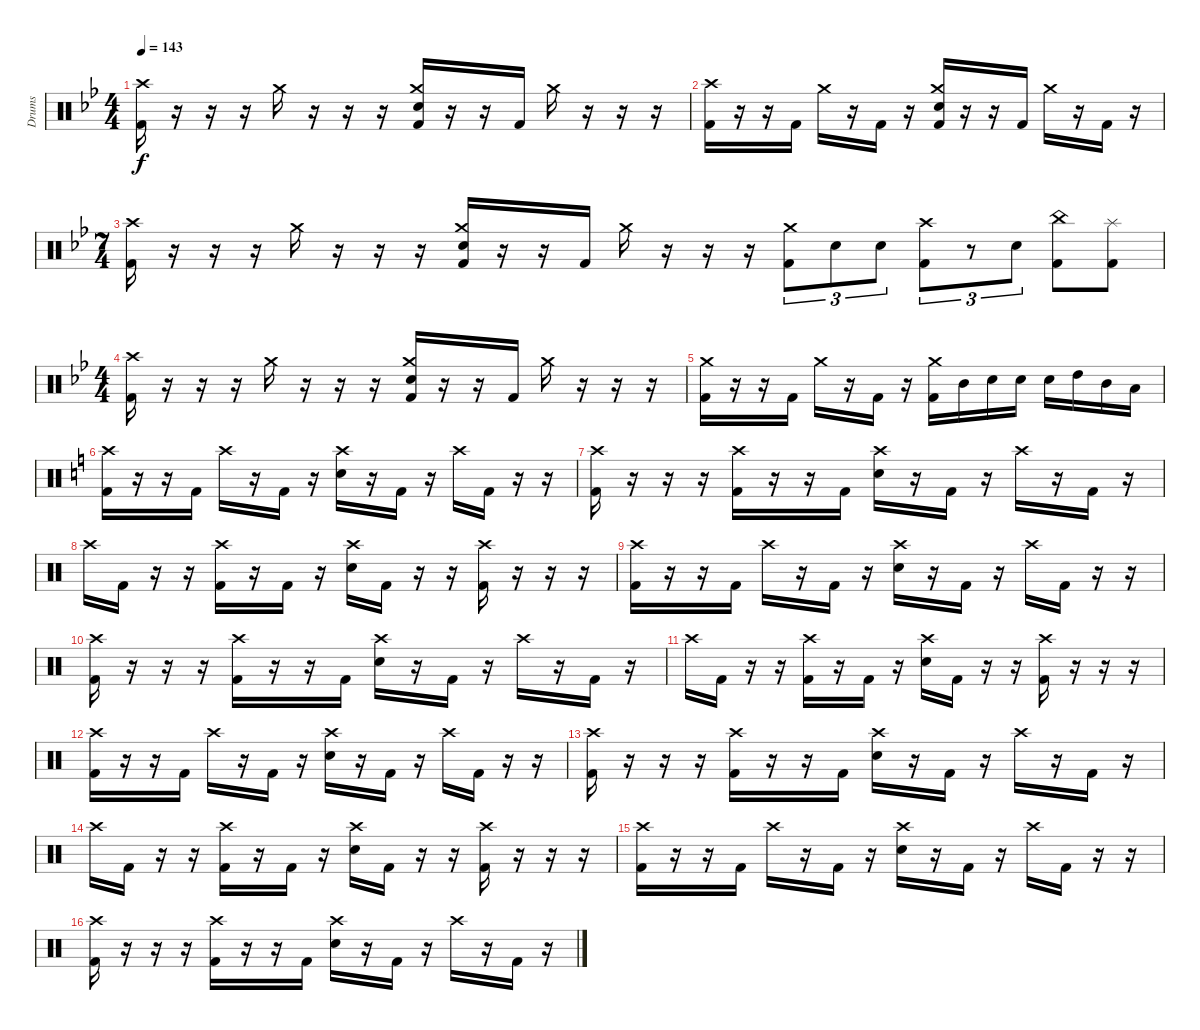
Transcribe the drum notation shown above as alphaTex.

\track ("Drums" "Drums") {instrument percussion}
\staff {score}
\articulation defaults
\ts (4 4)
\tempo 143
\clef neutral
\ks bb
("Crash high (hit)" "Kick (hit) 2").16{dy f} r.16 r.16 r.16 "Crash medium (hit)".16 r.16 r.16 r.16 ("Crash medium (hit)" "Electric Snare (hit)" "Kick (hit) 2").16 r.16 r.16 "Kick (hit) 2".16 "Crash medium (hit)".16 r.16 r.16 r.16 |
("Crash high (hit)" "Kick (hit) 2").16 r.16 r.16 "Kick (hit) 2".16 "Crash medium (hit)".16 r.16 "Kick (hit) 2".16 r.16 ("Crash medium (hit)" "Electric Snare (hit)" "Kick (hit) 2").16 r.16 r.16 "Kick (hit) 2".16 "Crash medium (hit)".16 r.16 "Kick (hit) 2".16 r.16 |
\ts (7 4)
("Crash high (hit)" "Kick (hit) 2").16 r.16 r.16 r.16 "Crash medium (hit)".16 r.16 r.16 r.16 ("Crash medium (hit)" "Electric Snare (hit)" "Kick (hit) 2").16 r.16 r.16 "Kick (hit) 2".16 "Crash medium (hit)".16 r.16 r.16 r.16 ("Crash medium (hit)" "Kick (hit) 2").8{tu (3 2)} "Electric Snare (hit)".8{tu (3 2)} "Electric Snare (hit)".8{tu (3 2)} ("Crash high (hit)" "Kick (hit) 2").8{tu (3 2)} r.8{tu (3 2)} "Electric Snare (hit)".8{tu (3 2)} ("China (hit)" "Kick (hit) 2").8 ("Splash (hit)" "Kick (hit) 2").8 |
\ts (4 4)
("Crash high (hit)" "Kick (hit) 2").16 r.16 r.16 r.16 "Crash medium (hit)".16 r.16 r.16 r.16 ("Crash medium (hit)" "Electric Snare (hit)" "Kick (hit) 2").16 r.16 r.16 "Kick (hit) 2".16 "Crash medium (hit)".16 r.16 r.16 r.16 |
("Crash medium (hit)" "Kick (hit) 2").16 r.16 r.16 "Kick (hit) 2".16 "Crash medium (hit)".16 r.16 "Kick (hit) 2".16 r.16 ("Crash medium (hit)" "Kick (hit) 2").16 "Mid Tom (hit)".16 "Electric Snare (hit)".16 "Electric Snare (hit)".16 "Electric Snare (hit)".16 "High Tom (hit)".16 "Mid Tom (hit)".16 "Low Tom (hit)".16 |
\ks c
("Crash high (hit)" "Kick (hit) 2").16 r.16 r.16 "Kick (hit) 2".16 "Crash high (hit)".16 r.16 "Kick (hit) 2".16 r.16 ("Crash high (hit)" "Electric Snare (hit)").16 r.16 "Kick (hit) 2".16 r.16 "Crash high (hit)".16 "Kick (hit) 2".16 r.16 r.16 |
("Crash high (hit)" "Kick (hit) 2").16 r.16 r.16 r.16 ("Crash high (hit)" "Kick (hit) 2").16 r.16 r.16 "Kick (hit) 2".16 ("Crash high (hit)" "Electric Snare (hit)").16 r.16 "Kick (hit) 2".16 r.16 "Crash high (hit)".16 r.16 "Kick (hit) 2".16 r.16 |
"Crash high (hit)".16 "Kick (hit) 2".16 r.16 r.16 ("Crash high (hit)" "Kick (hit) 2").16 r.16 "Kick (hit) 2".16 r.16 ("Crash high (hit)" "Electric Snare (hit)").16 "Kick (hit) 2".16 r.16 r.16 ("Crash high (hit)" "Kick (hit) 2").16 r.16 r.16 r.16 |
("Crash high (hit)" "Kick (hit) 2").16 r.16 r.16 "Kick (hit) 2".16 "Crash high (hit)".16 r.16 "Kick (hit) 2".16 r.16 ("Crash high (hit)" "Electric Snare (hit)").16 r.16 "Kick (hit) 2".16 r.16 "Crash high (hit)".16 "Kick (hit) 2".16 r.16 r.16 |
("Crash high (hit)" "Kick (hit) 2").16 r.16 r.16 r.16 ("Crash high (hit)" "Kick (hit) 2").16 r.16 r.16 "Kick (hit) 2".16 ("Crash high (hit)" "Electric Snare (hit)").16 r.16 "Kick (hit) 2".16 r.16 "Crash high (hit)".16 r.16 "Kick (hit) 2".16 r.16 |
"Crash high (hit)".16 "Kick (hit) 2".16 r.16 r.16 ("Crash high (hit)" "Kick (hit) 2").16 r.16 "Kick (hit) 2".16 r.16 ("Crash high (hit)" "Electric Snare (hit)").16 "Kick (hit) 2".16 r.16 r.16 ("Crash high (hit)" "Kick (hit) 2").16 r.16 r.16 r.16 |
("Crash high (hit)" "Kick (hit) 2").16 r.16 r.16 "Kick (hit) 2".16 "Crash high (hit)".16 r.16 "Kick (hit) 2".16 r.16 ("Crash high (hit)" "Electric Snare (hit)").16 r.16 "Kick (hit) 2".16 r.16 "Crash high (hit)".16 "Kick (hit) 2".16 r.16 r.16 |
("Crash high (hit)" "Kick (hit) 2").16 r.16 r.16 r.16 ("Crash high (hit)" "Kick (hit) 2").16 r.16 r.16 "Kick (hit) 2".16 ("Crash high (hit)" "Electric Snare (hit)").16 r.16 "Kick (hit) 2".16 r.16 "Crash high (hit)".16 r.16 "Kick (hit) 2".16 r.16 |
"Crash high (hit)".16 "Kick (hit) 2".16 r.16 r.16 ("Crash high (hit)" "Kick (hit) 2").16 r.16 "Kick (hit) 2".16 r.16 ("Crash high (hit)" "Electric Snare (hit)").16 "Kick (hit) 2".16 r.16 r.16 ("Crash high (hit)" "Kick (hit) 2").16 r.16 r.16 r.16 |
("Crash high (hit)" "Kick (hit) 2").16 r.16 r.16 "Kick (hit) 2".16 "Crash high (hit)".16 r.16 "Kick (hit) 2".16 r.16 ("Crash high (hit)" "Electric Snare (hit)").16 r.16 "Kick (hit) 2".16 r.16 "Crash high (hit)".16 "Kick (hit) 2".16 r.16 r.16 |
("Crash high (hit)" "Kick (hit) 2").16 r.16 r.16 r.16 ("Crash high (hit)" "Kick (hit) 2").16 r.16 r.16 "Kick (hit) 2".16 ("Crash high (hit)" "Electric Snare (hit)").16 r.16 "Kick (hit) 2".16 r.16 "Crash high (hit)".16 r.16 "Kick (hit) 2".16 r.16
